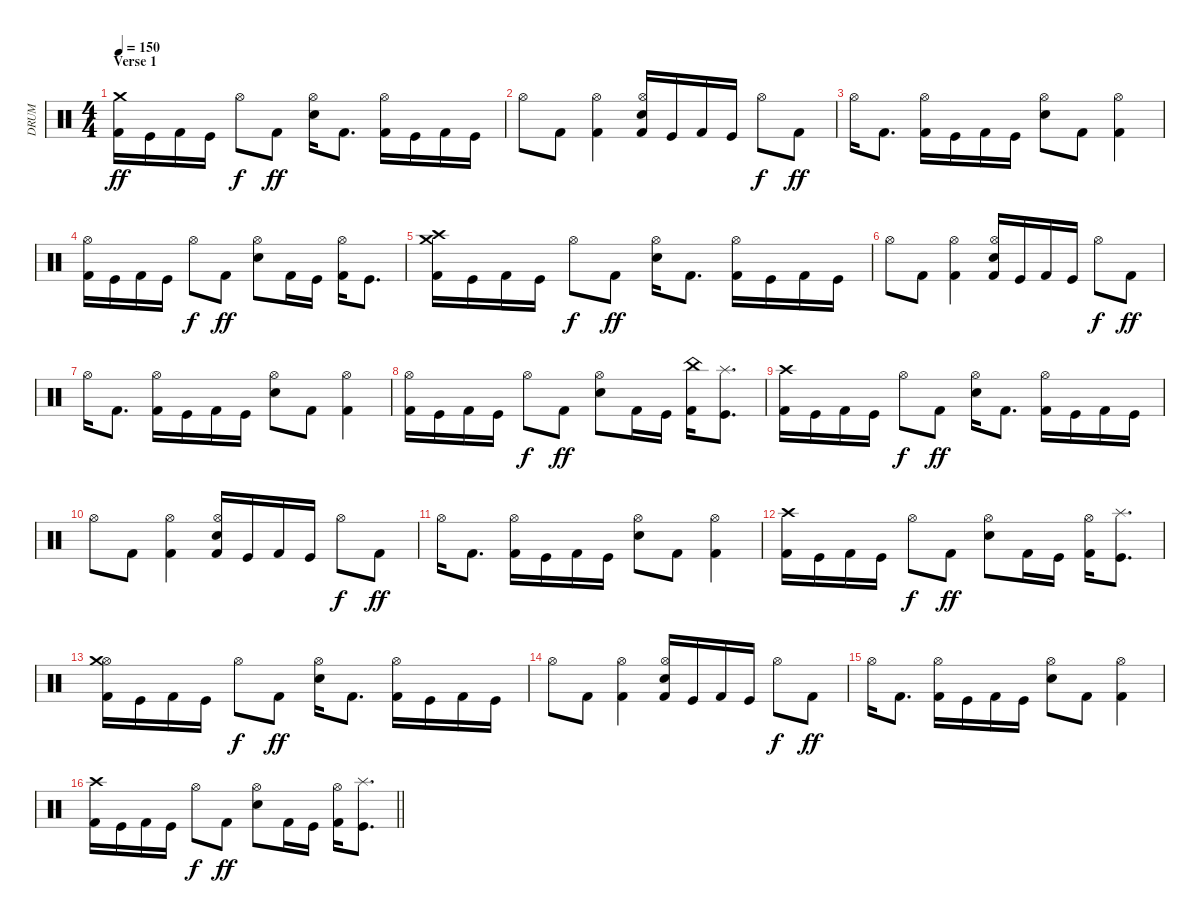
\track ("DRUM" "DRUM") {instrument percussion}
\staff {score}
\articulation defaults
\ts (4 4)
\section ("" "Verse 1")
\tempo 150
\clef neutral
\ks c
("Crash medium (hit)" "Kick (hit) 2").16{dy ff} "Kick (hit)".16 "Kick (hit) 2".16 "Kick (hit)".16 "Hi-Hat (open)".8{dy f} "Kick (hit) 2".8{dy ff} ("Hi-Hat (open)" "Snare (hit) 2").16 "Kick (hit) 2".8{d} ("Hi-Hat (open)" "Kick (hit) 2").16 "Kick (hit)".16 "Kick (hit) 2".16 "Kick (hit)".16 |
"Hi-Hat (open)".8 "Kick (hit) 2".8 ("Hi-Hat (open)" "Kick (hit) 2").4 ("Hi-Hat (open)" "Snare (hit) 2" "Kick (hit) 2").16 "Kick (hit)".16 "Kick (hit) 2".16 "Kick (hit)".16 "Hi-Hat (open)".8{dy f} "Kick (hit) 2".8{dy ff} |
"Hi-Hat (open)".16 "Kick (hit) 2".8{d} ("Hi-Hat (open)" "Kick (hit) 2").16 "Kick (hit)".16 "Kick (hit) 2".16 "Kick (hit)".16 ("Hi-Hat (open)" "Snare (hit) 2").8 "Kick (hit) 2".8 ("Hi-Hat (open)" "Kick (hit) 2").4 |
("Hi-Hat (open)" "Kick (hit) 2").16 "Kick (hit)".16 "Kick (hit) 2".16 "Kick (hit)".16 "Hi-Hat (open)".8{dy f} "Kick (hit) 2".8{dy ff} ("Hi-Hat (open)" "Snare (hit) 2").8 "Kick (hit) 2".16 "Kick (hit)".16 ("Hi-Hat (open)" "Kick (hit) 2").16 "Kick (hit)".8{d} |
("Crash medium (hit)" "Crash high (hit)" "Kick (hit) 2").16 "Kick (hit)".16 "Kick (hit) 2".16 "Kick (hit)".16 "Hi-Hat (open)".8{dy f} "Kick (hit) 2".8{dy ff} ("Hi-Hat (open)" "Snare (hit) 2").16 "Kick (hit) 2".8{d} ("Hi-Hat (open)" "Kick (hit) 2").16 "Kick (hit)".16 "Kick (hit) 2".16 "Kick (hit)".16 |
"Hi-Hat (open)".8 "Kick (hit) 2".8 ("Hi-Hat (open)" "Kick (hit) 2").4 ("Hi-Hat (open)" "Snare (hit) 2" "Kick (hit) 2").16 "Kick (hit)".16 "Kick (hit) 2".16 "Kick (hit)".16 "Hi-Hat (open)".8{dy f} "Kick (hit) 2".8{dy ff} |
"Hi-Hat (open)".16 "Kick (hit) 2".8{d} ("Hi-Hat (open)" "Kick (hit) 2").16 "Kick (hit)".16 "Kick (hit) 2".16 "Kick (hit)".16 ("Hi-Hat (open)" "Snare (hit) 2").8 "Kick (hit) 2".8 ("Hi-Hat (open)" "Kick (hit) 2").4 |
("Hi-Hat (open)" "Kick (hit) 2").16 "Kick (hit)".16 "Kick (hit) 2".16 "Kick (hit)".16 "Hi-Hat (open)".8{dy f} "Kick (hit) 2".8{dy ff} ("Hi-Hat (open)" "Snare (hit) 2").8 "Kick (hit) 2".16 "Kick (hit)".16 ("China (hit)" "Kick (hit) 2").16 ("Splash (hit)" "Kick (hit)").8{d} |
("Crash high (hit)" "Kick (hit) 2").16 "Kick (hit)".16 "Kick (hit) 2".16 "Kick (hit)".16 "Hi-Hat (open)".8{dy f} "Kick (hit) 2".8{dy ff} ("Hi-Hat (open)" "Snare (hit) 2").16 "Kick (hit) 2".8{d} ("Hi-Hat (open)" "Kick (hit) 2").16 "Kick (hit)".16 "Kick (hit) 2".16 "Kick (hit)".16 |
"Hi-Hat (open)".8 "Kick (hit) 2".8 ("Hi-Hat (open)" "Kick (hit) 2").4 ("Hi-Hat (open)" "Snare (hit) 2" "Kick (hit) 2").16 "Kick (hit)".16 "Kick (hit) 2".16 "Kick (hit)".16 "Hi-Hat (open)".8{dy f} "Kick (hit) 2".8{dy ff} |
"Hi-Hat (open)".16 "Kick (hit) 2".8{d} ("Hi-Hat (open)" "Kick (hit) 2").16 "Kick (hit)".16 "Kick (hit) 2".16 "Kick (hit)".16 ("Hi-Hat (open)" "Snare (hit) 2").8 "Kick (hit) 2".8 ("Hi-Hat (open)" "Kick (hit) 2").4 |
("Crash high (hit)" "Kick (hit) 2").16 "Kick (hit)".16 "Kick (hit) 2".16 "Kick (hit)".16 "Hi-Hat (open)".8{dy f} "Kick (hit) 2".8{dy ff} ("Hi-Hat (open)" "Snare (hit) 2").8 "Kick (hit) 2".16 "Kick (hit)".16 ("Hi-Hat (open)" "Kick (hit) 2").16 ("Splash (hit)" "Kick (hit)").8{d} |
("Hi-Hat (open)" "Crash medium (hit)" "Kick (hit) 2").16 "Kick (hit)".16 "Kick (hit) 2".16 "Kick (hit)".16 "Hi-Hat (open)".8{dy f} "Kick (hit) 2".8{dy ff} ("Hi-Hat (open)" "Snare (hit) 2").16 "Kick (hit) 2".8{d} ("Hi-Hat (open)" "Kick (hit) 2").16 "Kick (hit)".16 "Kick (hit) 2".16 "Kick (hit)".16 |
"Hi-Hat (open)".8 "Kick (hit) 2".8 ("Hi-Hat (open)" "Kick (hit) 2").4 ("Hi-Hat (open)" "Snare (hit) 2" "Kick (hit) 2").16 "Kick (hit)".16 "Kick (hit) 2".16 "Kick (hit)".16 "Hi-Hat (open)".8{dy f} "Kick (hit) 2".8{dy ff} |
"Hi-Hat (open)".16 "Kick (hit) 2".8{d} ("Hi-Hat (open)" "Kick (hit) 2").16 "Kick (hit)".16 "Kick (hit) 2".16 "Kick (hit)".16 ("Hi-Hat (open)" "Snare (hit) 2").8 "Kick (hit) 2".8 ("Hi-Hat (open)" "Kick (hit) 2").4 |
\barLineRight lightlight
("Crash high (hit)" "Kick (hit) 2").16 "Kick (hit)".16 "Kick (hit) 2".16 "Kick (hit)".16 "Hi-Hat (open)".8{dy f} "Kick (hit) 2".8{dy ff} ("Hi-Hat (open)" "Snare (hit) 2").8 "Kick (hit) 2".16 "Kick (hit)".16 ("Hi-Hat (open)" "Kick (hit) 2").16 ("Splash (hit)" "Kick (hit)").8{d}
